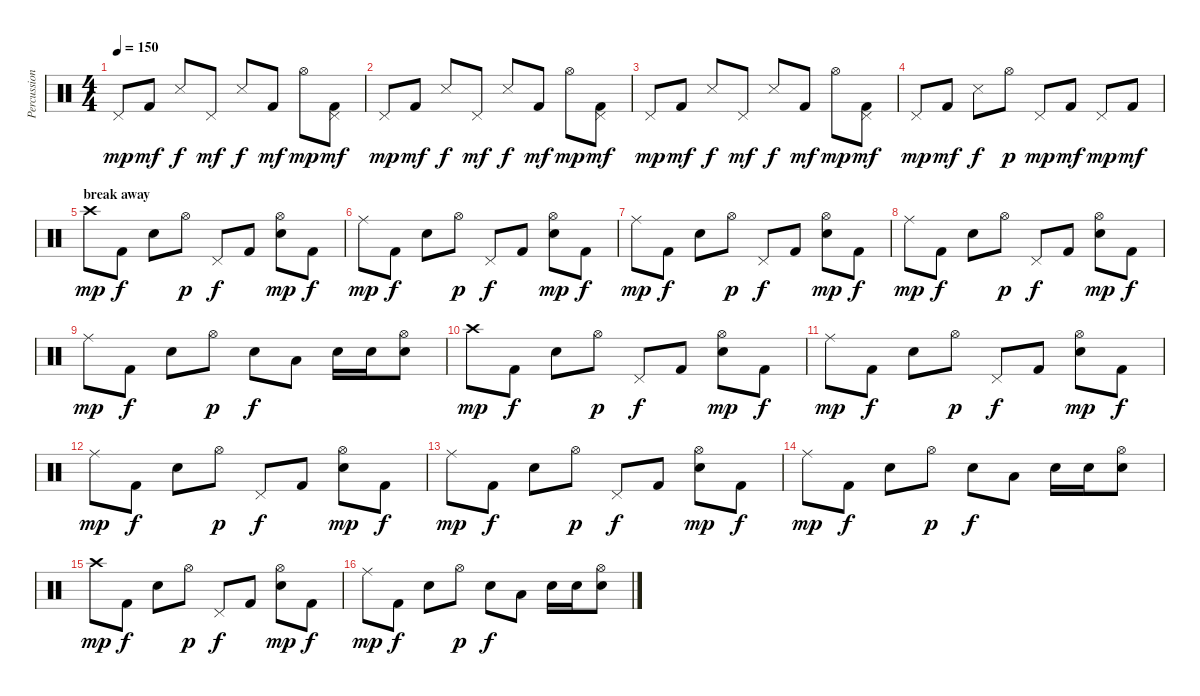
\track ("Percussion" "Percussion") {instrument percussion}
\staff {score}
\articulation defaults
\ts (4 4)
\tempo 150
\clef neutral
\ks c "Pedal Hi-Hat (hit)".8{dy mp} "Kick (hit) 2".8{dy mf} "Snare (side stick) 3".8{dy f} "Pedal Hi-Hat (hit)".8{dy mf} "Snare (side stick) 3".8{dy f} "Kick (hit) 2".8{dy mf} "Hi-Hat (open)".8{dy mp}
("Pedal Hi-Hat (hit)" "Kick (hit) 2").8{dy mf} |
"Pedal Hi-Hat (hit)".8{dy mp} "Kick (hit) 2".8{dy mf} "Snare (side stick) 3".8{dy f} "Pedal Hi-Hat (hit)".8{dy mf} "Snare (side stick) 3".8{dy f} "Kick (hit) 2".8{dy mf} "Hi-Hat (open)".8{dy mp} ("Pedal Hi-Hat (hit)" "Kick (hit) 2").8{dy mf} |
"Pedal Hi-Hat (hit)".8{dy mp} "Kick (hit) 2".8{dy mf} "Snare (side stick) 3".8{dy f} "Pedal Hi-Hat (hit)".8{dy mf} "Snare (side stick) 3".8{dy f} "Kick (hit) 2".8{dy mf} "Hi-Hat (open)".8{dy mp} ("Pedal Hi-Hat (hit)" "Kick (hit) 2").8{dy mf} |
"Pedal Hi-Hat (hit)".8{dy mp} "Kick (hit) 2".8{dy mf} "Snare (side stick) 3".8{dy f} "Hi-Hat (open)".8{dy p} "Pedal Hi-Hat (hit)".8{dy mp} "Kick (hit) 2".8{dy mf} "Pedal Hi-Hat (hit)".8{dy mp} "Kick (hit) 2".8{dy mf} |
\section ("" "break away")
"Crash high (hit)".8{dy mp} "Kick (hit) 2".8{dy f} "Electric Snare (hit)".8 "Hi-Hat (open)".8{dy p} "Pedal Hi-Hat (hit)".8{dy f} "Kick (hit) 2".8 ("Hi-Hat (open)" "Electric Snare (hit)").8{dy mp} "Kick (hit) 2".8{dy f} |
"Ride (middle)".8{dy mp} "Kick (hit) 2".8{dy f} "Electric Snare (hit)".8 "Hi-Hat (open)".8{dy p} "Pedal Hi-Hat (hit)".8{dy f} "Kick (hit) 2".8 ("Hi-Hat (open)" "Electric Snare (hit)").8{dy mp} "Kick (hit) 2".8{dy f} |
"Ride (middle)".8{dy mp} "Kick (hit) 2".8{dy f} "Electric Snare (hit)".8 "Hi-Hat (open)".8{dy p} "Pedal Hi-Hat (hit)".8{dy f} "Kick (hit) 2".8 ("Hi-Hat (open)" "Electric Snare (hit)").8{dy mp} "Kick (hit) 2".8{dy f} |
"Ride (middle)".8{dy mp} "Kick (hit) 2".8{dy f} "Electric Snare (hit)".8 "Hi-Hat (open)".8{dy p} "Pedal Hi-Hat (hit)".8{dy f} "Kick (hit) 2".8 ("Hi-Hat (open)" "Electric Snare (hit)").8{dy mp} "Kick (hit) 2".8{dy f} |
"Ride (middle)".8{dy mp} "Kick (hit) 2".8{dy f} "Electric Snare (hit)".8 "Hi-Hat (open)".8{dy p} "Electric Snare (hit)".8{dy f} "Low Tom (hit)".8 "Electric Snare (hit)".16 "Electric Snare (hit)".16 ("Hi-Hat (open)" "Electric Snare (hit)").8 |
"Crash high (hit)".8{dy mp} "Kick (hit) 2".8{dy f} "Electric Snare (hit)".8 "Hi-Hat (open)".8{dy p} "Pedal Hi-Hat (hit)".8{dy f} "Kick (hit) 2".8 ("Hi-Hat (open)" "Electric Snare (hit)").8{dy mp} "Kick (hit) 2".8{dy f} |
"Ride (middle)".8{dy mp} "Kick (hit) 2".8{dy f} "Electric Snare (hit)".8 "Hi-Hat (open)".8{dy p} "Pedal Hi-Hat (hit)".8{dy f} "Kick (hit) 2".8 ("Hi-Hat (open)" "Electric Snare (hit)").8{dy mp} "Kick (hit) 2".8{dy f} |
"Ride (middle)".8{dy mp} "Kick (hit) 2".8{dy f} "Electric Snare (hit)".8 "Hi-Hat (open)".8{dy p} "Pedal Hi-Hat (hit)".8{dy f} "Kick (hit) 2".8 ("Hi-Hat (open)" "Electric Snare (hit)").8{dy mp} "Kick (hit) 2".8{dy f} |
"Ride (middle)".8{dy mp} "Kick (hit) 2".8{dy f} "Electric Snare (hit)".8 "Hi-Hat (open)".8{dy p} "Pedal Hi-Hat (hit)".8{dy f} "Kick (hit) 2".8 ("Hi-Hat (open)" "Electric Snare (hit)").8{dy mp} "Kick (hit) 2".8{dy f} |
"Ride (middle)".8{dy mp} "Kick (hit) 2".8{dy f} "Electric Snare (hit)".8 "Hi-Hat (open)".8{dy p} "Electric Snare (hit)".8{dy f} "Low Tom (hit)".8 "Electric Snare (hit)".16 "Electric Snare (hit)".16 ("Hi-Hat (open)" "Electric Snare (hit)").8 |
"Crash high (hit)".8{dy mp} "Kick (hit) 2".8{dy f} "Electric Snare (hit)".8 "Hi-Hat (open)".8{dy p} "Pedal Hi-Hat (hit)".8{dy f} "Kick (hit) 2".8 ("Hi-Hat (open)" "Electric Snare (hit)").8{dy mp} "Kick (hit) 2".8{dy f} |
"Ride (middle)".8{dy mp} "Kick (hit) 2".8{dy f} "Electric Snare (hit)".8 "Hi-Hat (open)".8{dy p} "Electric Snare (hit)".8{dy f} "Low Tom (hit)".8 "Electric Snare (hit)".16 "Electric Snare (hit)".16 ("Hi-Hat (open)" "Electric Snare (hit)").8
